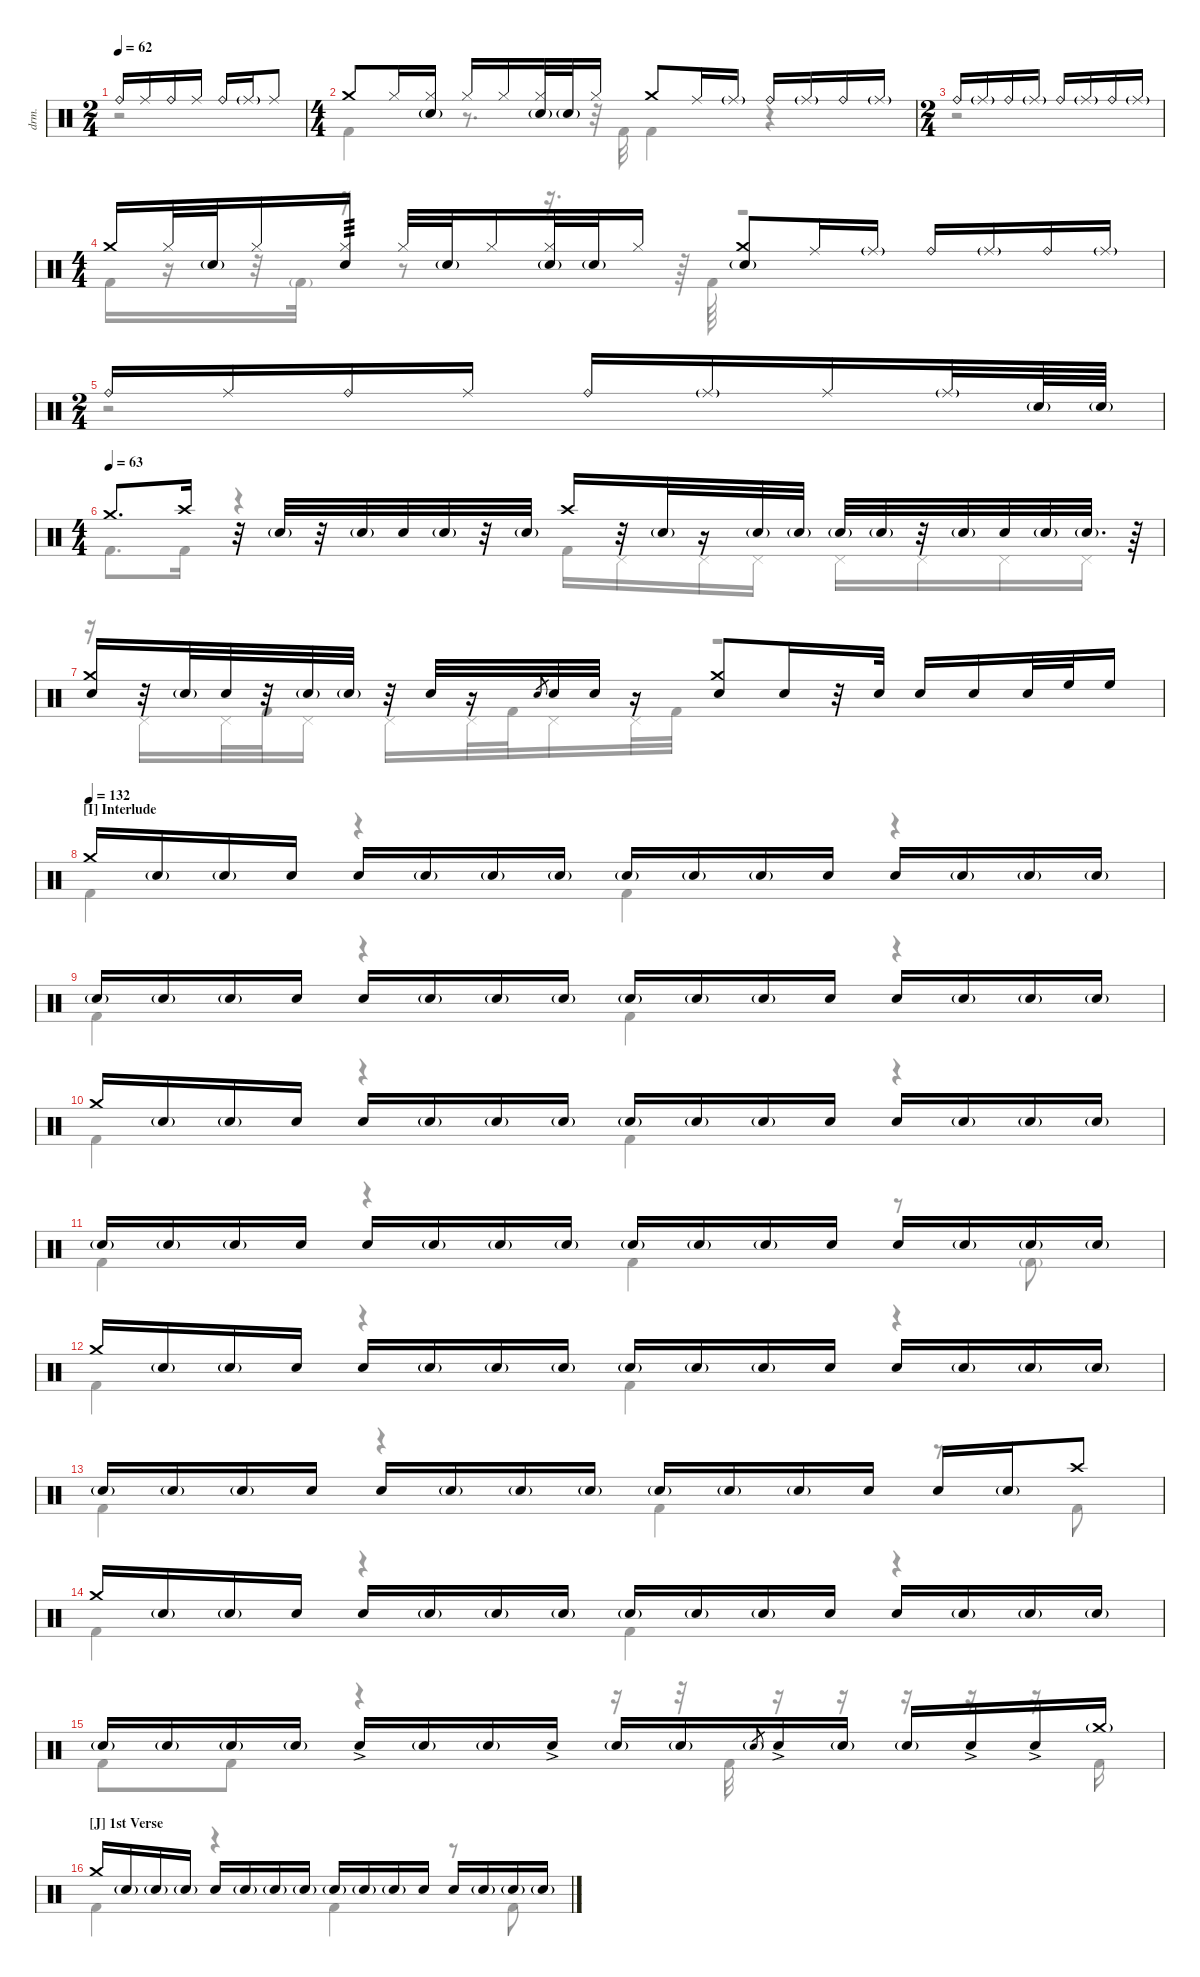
\defaultSystemsLayout 4
\hideDynamics
\bracketExtendMode nobrackets
\track ("Drums" "drm.") {instrument percussion}
\staff {score}
\articulation defaults
\voice
\ts (2 4)
\beaming (8 2 2)
\tempo 62
\clef neutral
\ks c "Ride (bell)".16{dy mf} "Ride (middle)".16 "Ride (bell)".16 "Ride (middle)".16 "Ride (bell)".16 "Ride (middle)"{g}.16 "Ride (middle)".8
|
\ts (4 4)
\beaming (8 2 2 2 2)
"Crash medium (hit)".8 "Hi-Hat (closed)".16 ("Hi-Hat (closed)" "Snare (hit) 2"{g}).16 "Hi-Hat (closed)".16 "Hi-Hat (closed)".16 ("Hi-Hat (closed)" "Snare (hit) 2"{g}).32 "Snare (hit) 2"{g}.32 "Hi-Hat (closed)".16 "Crash medium (hit)".8 "Ride (middle)".16 "Ride (middle)"{g}.16 "Ride (bell)".16 "Ride (middle)"{g}.16 "Ride (bell)".16 "Ride (middle)"{g}.16 |
\ts (2 4)
\beaming (8 2 2)
"Ride (bell)".16 "Ride (middle)"{g}.16 "Ride (bell)".16 "Ride (middle)"{g}.16 "Ride (bell)".16 "Ride (middle)"{g}.16 "Ride (bell)".16 "Ride (middle)"{g}.16 |
\ts (4 4)
\beaming (8 2 2 2 2)
"Crash medium (hit)".16 "Hi-Hat (closed)".32 "Snare (hit) 2"{g}.32 "Hi-Hat (closed)".16 ("Hi-Hat (closed)" "Snare (hit) 2").16{tp 3} "Hi-Hat (closed)".32 "Snare (hit) 2"{g}.32 "Hi-Hat (closed)".16 ("Hi-Hat (closed)" "Snare (hit) 2"{g}).32 "Snare (hit) 2"{g}.32 "Hi-Hat (closed)".16 ("Crash medium (hit)" "Snare (hit) 2"{g}).8 "Ride (middle)".16 "Ride (middle)"{g}.16 "Ride (bell)".16 "Ride (middle)"{g}.16 "Ride (bell)".16 "Ride (middle)"{g}.16 |
\ts (2 4)
\beaming (8 2 2)
"Ride (bell)".16 "Ride (middle)".16 "Ride (bell)".16 "Ride (middle)".16 "Ride (bell)".16 "Ride (middle)"{g}.16 "Ride (middle)".16 "Ride (middle)"{g}.32 "Snare (hit) 2"{g}.64 "Snare (hit) 2"{g}.64 |
\ts (4 4)
\beaming (8 2 2 2 2)
\tempo (63)
"Crash medium (hit)".8{d} "Crash high (hit)".16 r.32 "Snare (hit) 2"{g}.32 r.32 "Snare (hit) 2"{g}.32 "Snare (hit) 2".32 "Snare (hit) 2"{g}.32 r.32 "Snare (hit) 2"{g}.32 "Crash high (hit)".16 r.32 "Snare (hit) 2"{g}.32 r.16 "Snare (hit) 2"{g}.32 "Snare (hit) 2"{g}.32{beam split} "Snare (hit) 2"{g}.32 "Snare (hit) 2"{g}.32{beam merge} r.32{beam merge} "Snare (hit) 2"{g}.32 "Snare (hit) 2".32 "Snare (hit) 2"{g}.32 "Snare (hit) 2"{g}.32{d} r.64 |
("Crash medium (hit)" "Snare (hit) 2").16 r.32 "Snare (hit) 2"{g}.32 "Snare (hit) 2".32 r.32 "Snare (hit) 2"{g}.32 "Snare (hit) 2"{g}.32 r.32 "Snare (hit) 2".32 r.16 "Snare (hit) 2".8{gr} "Snare (hit) 2".32 "Snare (hit) 2".32 r.16 ("Crash medium (hit)" "Snare (hit) 2").8 "Snare (hit) 2".16 r.32 "Snare (hit) 2".32 "Snare (hit) 2".16 "Snare (hit) 2".16 "Snare (hit) 2".32 "High Floor Tom (hit)".32 "High Floor Tom (hit)".16 |
\section ("I" "Interlude")
\tempo (132)
"Crash medium (hit)".16 "Snare (hit) 2"{g}.16 "Snare (hit) 2"{g}.16 "Snare (hit) 2".16 "Snare (hit) 2".16 "Snare (hit) 2"{g}.16 "Snare (hit) 2"{g}.16 "Snare (hit) 2"{g}.16 "Snare (hit) 2"{g}.16 "Snare (hit) 2"{g}.16 "Snare (hit) 2"{g}.16 "Snare (hit) 2".16 "Snare (hit) 2".16 "Snare (hit) 2"{g}.16 "Snare (hit) 2"{g}.16 "Snare (hit) 2"{g}.16 |
"Snare (hit) 2"{g}.16 "Snare (hit) 2"{g}.16 "Snare (hit) 2"{g}.16 "Snare (hit) 2".16 "Snare (hit) 2".16 "Snare (hit) 2"{g}.16 "Snare (hit) 2"{g}.16 "Snare (hit) 2"{g}.16 "Snare (hit) 2"{g}.16 "Snare (hit) 2"{g}.16 "Snare (hit) 2"{g}.16 "Snare (hit) 2".16 "Snare (hit) 2".16 "Snare (hit) 2"{g}.16 "Snare (hit) 2"{g}.16 "Snare (hit) 2"{g}.16 |
"Crash medium (hit)".16 "Snare (hit) 2"{g}.16 "Snare (hit) 2"{g}.16 "Snare (hit) 2".16 "Snare (hit) 2".16 "Snare (hit) 2"{g}.16 "Snare (hit) 2"{g}.16 "Snare (hit) 2"{g}.16 "Snare (hit) 2"{g}.16 "Snare (hit) 2"{g}.16 "Snare (hit) 2"{g}.16 "Snare (hit) 2".16 "Snare (hit) 2".16 "Snare (hit) 2"{g}.16 "Snare (hit) 2"{g}.16 "Snare (hit) 2"{g}.16 |
"Snare (hit) 2"{g}.16 "Snare (hit) 2"{g}.16 "Snare (hit) 2"{g}.16 "Snare (hit) 2".16 "Snare (hit) 2".16 "Snare (hit) 2"{g}.16 "Snare (hit) 2"{g}.16 "Snare (hit) 2"{g}.16 "Snare (hit) 2"{g}.16 "Snare (hit) 2"{g}.16 "Snare (hit) 2"{g}.16 "Snare (hit) 2".16 "Snare (hit) 2".16 "Snare (hit) 2"{g}.16 "Snare (hit) 2"{g}.16 "Snare (hit) 2"{g}.16 |
"Crash medium (hit)".16 "Snare (hit) 2"{g}.16 "Snare (hit) 2"{g}.16 "Snare (hit) 2".16 "Snare (hit) 2".16 "Snare (hit) 2"{g}.16 "Snare (hit) 2"{g}.16 "Snare (hit) 2"{g}.16 "Snare (hit) 2"{g}.16 "Snare (hit) 2"{g}.16 "Snare (hit) 2"{g}.16 "Snare (hit) 2".16 "Snare (hit) 2".16 "Snare (hit) 2"{g}.16 "Snare (hit) 2"{g}.16 "Snare (hit) 2"{g}.16 |
"Snare (hit) 2"{g}.16 "Snare (hit) 2"{g}.16 "Snare (hit) 2"{g}.16 "Snare (hit) 2".16 "Snare (hit) 2".16 "Snare (hit) 2"{g}.16 "Snare (hit) 2"{g}.16 "Snare (hit) 2"{g}.16 "Snare (hit) 2"{g}.16 "Snare (hit) 2"{g}.16 "Snare (hit) 2"{g}.16 "Snare (hit) 2".16 "Snare (hit) 2".16 "Snare (hit) 2"{g}.16 "Crash high (hit)".8 |
"Crash medium (hit)".16 "Snare (hit) 2"{g}.16 "Snare (hit) 2"{g}.16 "Snare (hit) 2".16 "Snare (hit) 2".16 "Snare (hit) 2"{g}.16 "Snare (hit) 2"{g}.16 "Snare (hit) 2"{g}.16 "Snare (hit) 2"{g}.16 "Snare (hit) 2"{g}.16 "Snare (hit) 2"{g}.16 "Snare (hit) 2".16 "Snare (hit) 2".16 "Snare (hit) 2"{g}.16 "Snare (hit) 2"{g}.16 "Snare (hit) 2"{g}.16 |
"Snare (hit) 2"{g}.16 "Snare (hit) 2"{g}.16 "Snare (hit) 2"{g}.16 "Snare (hit) 2"{g}.16 "Snare (hit) 2"{ac}.16 "Snare (hit) 2"{g}.16 "Snare (hit) 2"{g}.16 "Snare (hit) 2"{ac}.16 "Snare (hit) 2"{g}.16 "Snare (hit) 2"{g}.16 "Snare (hit) 2"{g}.8{gr} "Snare (hit) 2"{ac}.16 "Snare (hit) 2"{g}.16 "Snare (hit) 2"{g}.16 "Snare (hit) 2"{ac}.16 "Snare (hit) 2"{ac}.16 "Crash medium (hit)"{g}.16 |
\section ("J" "1st Verse")
"Crash medium (hit)".16 "Snare (hit) 2"{g}.16 "Snare (hit) 2"{g}.16 "Snare (hit) 2"{g}.16 "Snare (hit) 2".16 "Snare (hit) 2"{g}.16 "Snare (hit) 2"{g}.16 "Snare (hit) 2"{g}.16 "Snare (hit) 2"{g}.16 "Snare (hit) 2"{g}.16 "Snare (hit) 2"{g}.16 "Snare (hit) 2".16 "Snare (hit) 2".16 "Snare (hit) 2"{g}.16 "Snare (hit) 2"{g}.16 "Snare (hit) 2"{g}.16
\voice
\clef neutral
\ottava regular
\simile none
\ks c
r.2{dy mf} |
"Kick (hit) 2".4 r.8{d} r.32 "Kick (hit) 2".32 "Kick (hit) 2".4 r.4 |
r.2 |
"Kick (hit) 2".16 r.16 r.32 "Kick (hit) 2"{g}.32 r.16 r.8 r.16{d} r.64 "Kick (hit) 2".64 r.2 |
r.2 |
"Kick (hit) 2".8{d} "Kick (hit) 2".16 r.4 "Kick (hit) 2".16 "Pedal Hi-Hat (hit)".16 "Pedal Hi-Hat (hit)".16 "Pedal Hi-Hat (hit)".16 "Pedal Hi-Hat (hit)".16 "Pedal Hi-Hat (hit)".16 "Pedal Hi-Hat (hit)".16 "Pedal Hi-Hat (hit)".16 |
r.16 "Pedal Hi-Hat (hit)".16 "Pedal Hi-Hat (hit)".32 "Kick (hit) 2".32 "Pedal Hi-Hat (hit)".16 "Pedal Hi-Hat (hit)".16 "Pedal Hi-Hat (hit)".32 "Kick (hit) 2".32 "Pedal Hi-Hat (hit)".16 "Pedal Hi-Hat (hit)".32 "Kick (hit) 2".32 r.2 |
"Kick (hit) 2".4 r.4 "Kick (hit) 2".4 r.4 |
"Kick (hit) 2".4 r.4 "Kick (hit) 2".4 r.4 |
"Kick (hit) 2".4 r.4 "Kick (hit) 2".4 r.4 |
"Kick (hit) 2".4 r.4 "Kick (hit) 2".4 r.8 "Kick (hit) 2"{g}.8 |
"Kick (hit) 2".4 r.4 "Kick (hit) 2".4 r.4 |
"Kick (hit) 2".4 r.4 "Kick (hit) 2".4 r.8 "Kick (hit) 2".8 |
"Kick (hit) 2".4 r.4 "Kick (hit) 2".4 r.4 |
"Kick (hit) 2".8 "Kick (hit) 2".8 r.4 r.16 r.32 "Kick (hit) 2".32 r.16 r.16 r.16 r.16 r.16 "Kick (hit) 2".16 |
"Kick (hit) 2".4 r.4 "Kick (hit) 2".4 r.8 "Kick (hit) 2".8
